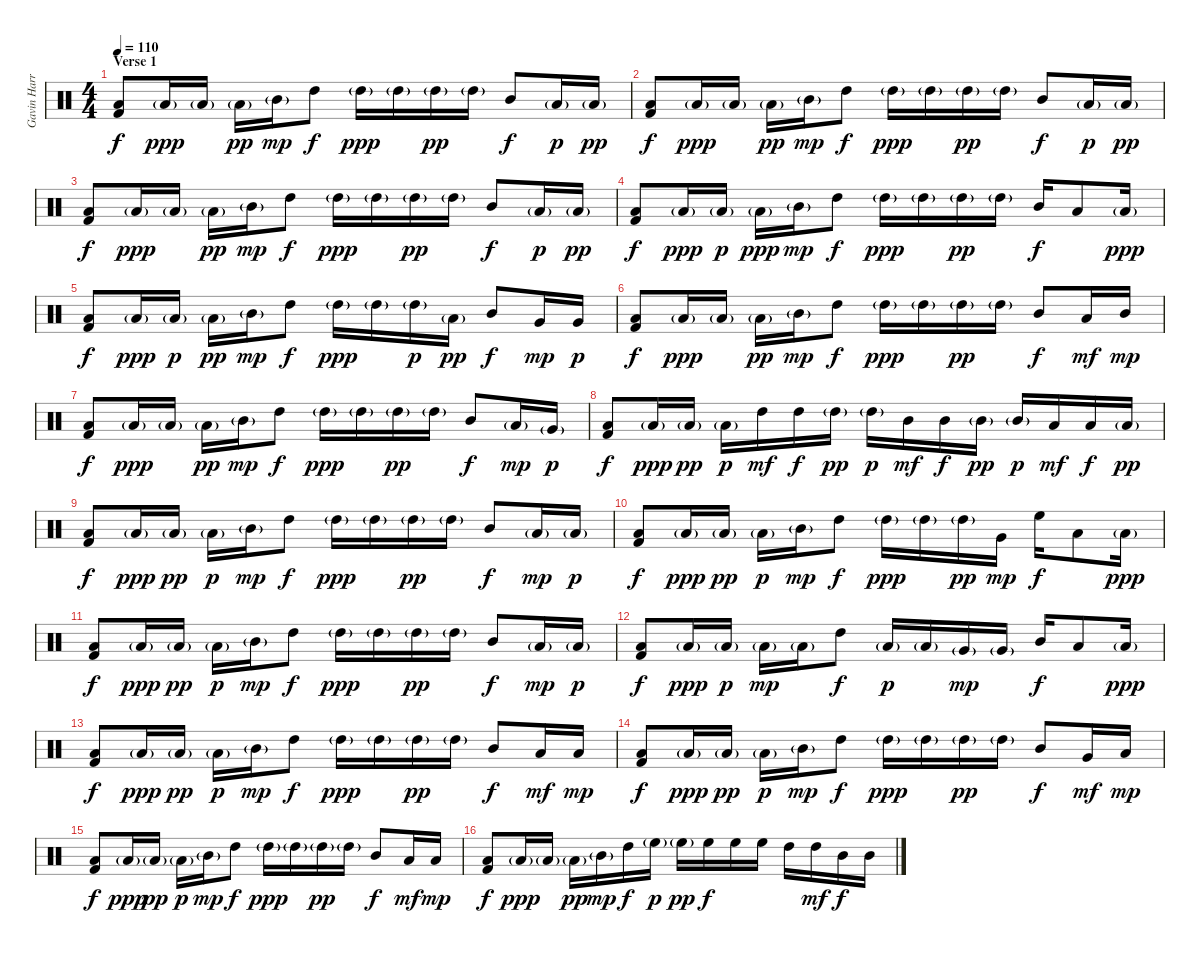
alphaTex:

\track ("Gavin Harrison - Drums" "Gavin Harr") {instrument percussion}
\staff {score}
\articulation defaults
\ts (4 4)
\section ("" "Verse 1")
\tempo 110
\clef neutral
\ks c
("Low Floor Tom (hit)" "Kick (hit) 2").8{dy f} "Low Floor Tom (hit)"{g}.16{dy ppp} "Low Tom (hit)"{g}.16 "Low Tom (hit)"{g}.16{dy pp} "Mid Tom (hit)"{g}.16{dy mp} "High Tom (hit)".8{dy f} "High Tom (hit)"{g}.16{dy ppp} "High Tom (hit)"{g}.16 "High Tom (hit)"{g}.16{dy pp} "High Tom (hit)"{g}.16 "Mid Tom (hit)".8{dy f} "Low Tom (hit)"{g}.16{dy p} "Low Tom (hit)"{g}.16{dy pp} |
("Low Floor Tom (hit)" "Kick (hit) 2").8{dy f} "Low Floor Tom (hit)"{g}.16{dy ppp} "Low Tom (hit)"{g}.16 "Low Tom (hit)"{g}.16{dy pp} "Mid Tom (hit)"{g}.16{dy mp} "High Tom (hit)".8{dy f} "High Tom (hit)"{g}.16{dy ppp} "High Tom (hit)"{g}.16 "High Tom (hit)"{g}.16{dy pp} "High Tom (hit)"{g}.16 "Mid Tom (hit)".8{dy f} "Low Tom (hit)"{g}.16{dy p} "Low Tom (hit)"{g}.16{dy pp} |
("Low Floor Tom (hit)" "Kick (hit) 2").8{dy f} "Low Floor Tom (hit)"{g}.16{dy ppp} "Low Tom (hit)"{g}.16 "Low Tom (hit)"{g}.16{dy pp} "Mid Tom (hit)"{g}.16{dy mp} "High Tom (hit)".8{dy f} "High Tom (hit)"{g}.16{dy ppp} "High Tom (hit)"{g}.16 "High Tom (hit)"{g}.16{dy pp} "High Tom (hit)"{g}.16 "Mid Tom (hit)".8{dy f} "Low Tom (hit)"{g}.16{dy p} "Low Tom (hit)"{g}.16{dy pp} |
("Low Floor Tom (hit)" "Kick (hit) 2").8{dy f} "Low Floor Tom (hit)"{g}.16{dy ppp} "Low Tom (hit)"{g}.16{dy p} "Low Tom (hit)"{g}.16{dy ppp} "Mid Tom (hit)"{g}.16{dy mp} "High Tom (hit)".8{dy f} "High Tom (hit)"{g}.16{dy ppp} "High Tom (hit)"{g}.16 "High Tom (hit)"{g}.16{dy pp} "High Tom (hit)"{g}.16 "Mid Tom (hit)".16{dy f} "Low Floor Tom (hit)".8 "Low Floor Tom (hit)"{g}.16{dy ppp} |
("Low Floor Tom (hit)" "Kick (hit) 2").8{dy f} "Low Floor Tom (hit)"{g}.16{dy ppp} "Low Tom (hit)"{g}.16{dy p} "Low Tom (hit)"{g}.16{dy pp} "Mid Tom (hit)"{g}.16{dy mp} "High Tom (hit)".8{dy f} "High Tom (hit)"{g}.16{dy ppp} "High Tom (hit)"{g}.16 "High Tom (hit)"{g}.16{dy p} "Low Tom (hit)"{g}.16{dy pp} "Mid Tom (hit)".8{dy f} "Very Low Tom (hit)".16{dy mp} "Very Low Tom (hit)".16{dy p} |
("Low Floor Tom (hit)" "Kick (hit) 2").8{dy f} "Low Floor Tom (hit)"{g}.16{dy ppp} "Low Tom (hit)"{g}.16 "Low Tom (hit)"{g}.16{dy pp} "Mid Tom (hit)"{g}.16{dy mp} "High Tom (hit)".8{dy f} "High Tom (hit)"{g}.16{dy ppp} "High Tom (hit)"{g}.16 "High Tom (hit)"{g}.16{dy pp} "High Tom (hit)"{g}.16 "Mid Tom (hit)".8{dy f} "Low Tom (hit)".16{dy mf} "Mid Tom (hit)".16{dy mp} |
("Low Floor Tom (hit)" "Kick (hit) 2").8{dy f} "Low Floor Tom (hit)"{g}.16{dy ppp} "Low Tom (hit)"{g}.16 "Low Tom (hit)"{g}.16{dy pp} "Mid Tom (hit)"{g}.16{dy mp} "High Tom (hit)".8{dy f} "High Tom (hit)"{g}.16{dy ppp} "High Tom (hit)"{g}.16 "High Tom (hit)"{g}.16{dy pp} "High Tom (hit)"{g}.16 "Mid Tom (hit)".8{dy f} "Low Tom (hit)"{g}.16{dy mp} "Very Low Tom (hit)"{g}.16{dy p} |
("Low Floor Tom (hit)" "Kick (hit) 2").8{dy f} "Low Floor Tom (hit)"{g}.16{dy ppp} "Low Tom (hit)"{g}.16{dy pp} "Low Tom (hit)"{g}.16{dy p} "High Tom (hit)".16{dy mf} "High Tom (hit)".16{dy f} "High Tom (hit)"{g}.16{dy pp} "High Tom (hit)"{g}.16{dy p} "Mid Tom (hit)".16{dy mf} "Mid Tom (hit)".16{dy f} "Mid Tom (hit)"{g}.16{dy pp} "Mid Tom (hit)"{g}.16{dy p} "Low Tom (hit)".16{dy mf} "Low Tom (hit)".16{dy f} "Low Tom (hit)"{g}.16{dy pp} |
("Low Floor Tom (hit)" "Kick (hit) 2").8{dy f} "Low Floor Tom (hit)"{g}.16{dy ppp} "Low Tom (hit)"{g}.16{dy pp} "Low Tom (hit)"{g}.16{dy p} "Mid Tom (hit)"{g}.16{dy mp} "High Tom (hit)".8{dy f} "High Tom (hit)"{g}.16{dy ppp} "High Tom (hit)"{g}.16 "High Tom (hit)"{g}.16{dy pp} "High Tom (hit)"{g}.16 "Mid Tom (hit)".8{dy f} "Low Tom (hit)"{g}.16{dy mp} "Low Tom (hit)"{g}.16{dy p} |
("Low Floor Tom (hit)" "Kick (hit) 2").8{dy f} "Low Floor Tom (hit)"{g}.16{dy ppp} "Low Tom (hit)"{g}.16{dy pp} "Low Tom (hit)"{g}.16{dy p} "Mid Tom (hit)"{g}.16{dy mp} "High Tom (hit)".8{dy f} "High Tom (hit)"{g}.16{dy ppp} "High Tom (hit)"{g}.16 "High Tom (hit)"{g}.16{dy pp} "Very Low Tom (hit)".16{dy mp} "High Floor Tom (hit)".16{dy f} "Low Floor Tom (hit)".8 "Low Floor Tom (hit)"{g}.16{dy ppp} |
("Low Floor Tom (hit)" "Kick (hit) 2").8{dy f} "Low Floor Tom (hit)"{g}.16{dy ppp} "Low Tom (hit)"{g}.16{dy pp} "Low Tom (hit)"{g}.16{dy p} "Mid Tom (hit)"{g}.16{dy mp} "High Tom (hit)".8{dy f} "High Tom (hit)"{g}.16{dy ppp} "High Tom (hit)"{g}.16 "High Tom (hit)"{g}.16{dy pp} "High Tom (hit)"{g}.16 "Mid Tom (hit)".8{dy f} "Low Tom (hit)"{g}.16{dy mp} "Low Tom (hit)"{g}.16{dy p} |
("Low Floor Tom (hit)" "Kick (hit) 2").8{dy f} "Low Floor Tom (hit)"{g}.16{dy ppp} "Low Tom (hit)"{g}.16{dy p} "Low Tom (hit)"{g}.16{dy mp} "Low Tom (hit)"{g}.16 "High Tom (hit)".8{dy f} "Low Tom (hit)"{g}.16{dy p} "Low Tom (hit)"{g}.16 "Very Low Tom (hit)"{g}.16{dy mp} "Very Low Tom (hit)"{g}.16 "Mid Tom (hit)".16{dy f} "Low Floor Tom (hit)".8 "Low Floor Tom (hit)"{g}.16{dy ppp} |
("Low Floor Tom (hit)" "Kick (hit) 2").8{dy f} "Low Floor Tom (hit)"{g}.16{dy ppp} "Low Tom (hit)"{g}.16{dy pp} "Low Tom (hit)"{g}.16{dy p} "Mid Tom (hit)"{g}.16{dy mp} "High Tom (hit)".8{dy f} "High Tom (hit)"{g}.16{dy ppp} "High Tom (hit)"{g}.16 "High Tom (hit)"{g}.16{dy pp} "High Tom (hit)"{g}.16 "Mid Tom (hit)".8{dy f} "Low Tom (hit)".16{dy mf} "Low Tom (hit)".16{dy mp} |
("Low Floor Tom (hit)" "Kick (hit) 2").8{dy f} "Low Floor Tom (hit)"{g}.16{dy ppp} "Low Tom (hit)"{g}.16{dy pp} "Low Tom (hit)"{g}.16{dy p} "Mid Tom (hit)"{g}.16{dy mp} "High Tom (hit)".8{dy f} "High Tom (hit)"{g}.16{dy ppp} "High Tom (hit)"{g}.16 "High Tom (hit)"{g}.16{dy pp} "High Tom (hit)"{g}.16 "Mid Tom (hit)".8{dy f} "Very Low Tom (hit)".16{dy mf} "Low Tom (hit)".16{dy mp} |
("Low Floor Tom (hit)" "Kick (hit) 2").8{dy f} "Low Floor Tom (hit)"{g}.16{dy ppp} "Low Tom (hit)"{g}.16{dy pp} "Low Tom (hit)"{g}.16{dy p} "Mid Tom (hit)"{g}.16{dy mp} "High Tom (hit)".8{dy f} "High Tom (hit)"{g}.16{dy ppp} "High Tom (hit)"{g}.16 "High Tom (hit)"{g}.16{dy pp} "High Tom (hit)"{g}.16 "Mid Tom (hit)".8{dy f} "Low Tom (hit)".16{dy mf} "Low Tom (hit)".16{dy mp} |
("Low Floor Tom (hit)" "Kick (hit) 2").8{dy f} "Low Floor Tom (hit)"{g}.16{dy ppp} "Low Tom (hit)"{g}.16 "Low Tom (hit)"{g}.16{dy pp} "Mid Tom (hit)"{g}.16{dy mp} "High Tom (hit)".16{dy f} "High Floor Tom (hit)"{g}.16{dy p} "High Floor Tom (hit)"{g}.16{dy pp} "High Floor Tom (hit)".16{dy f} "High Floor Tom (hit)".16 "High Floor Tom (hit)".16 "High Tom (hit)".16 "High Tom (hit)".16{dy mf} "Mid Tom (hit)".16{dy f} "Mid Tom (hit)".16
